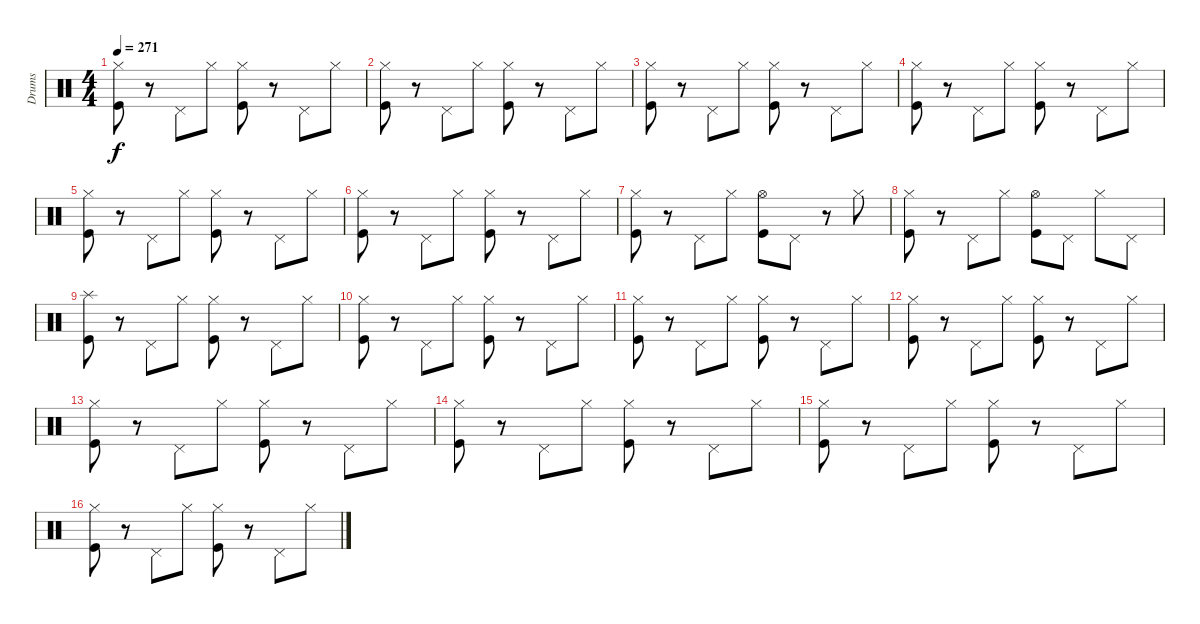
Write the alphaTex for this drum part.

\track ("Drums" "Drums") {instrument percussion}
\staff {score}
\articulation defaults
\ts (4 4)
\tempo 271
\clef neutral
\ks c
("Hi-Hat (closed)" "Kick (hit)").8{dy f} r.8 "Pedal Hi-Hat (hit)".8 "Hi-Hat (closed)".8 ("Hi-Hat (closed)" "Kick (hit)").8 r.8 "Pedal Hi-Hat (hit)".8 "Hi-Hat (closed)".8 |
("Hi-Hat (closed)" "Kick (hit)").8 r.8 "Pedal Hi-Hat (hit)".8 "Hi-Hat (closed)".8 ("Hi-Hat (closed)" "Kick (hit)").8 r.8 "Pedal Hi-Hat (hit)".8 "Hi-Hat (closed)".8 |
("Hi-Hat (closed)" "Kick (hit)").8 r.8 "Pedal Hi-Hat (hit)".8 "Hi-Hat (closed)".8 ("Hi-Hat (closed)" "Kick (hit)").8 r.8 "Pedal Hi-Hat (hit)".8 "Hi-Hat (closed)".8 |
("Hi-Hat (closed)" "Kick (hit)").8 r.8 "Pedal Hi-Hat (hit)".8 "Hi-Hat (closed)".8 ("Hi-Hat (closed)" "Kick (hit)").8 r.8 "Pedal Hi-Hat (hit)".8 "Hi-Hat (closed)".8 |
("Hi-Hat (closed)" "Kick (hit)").8 r.8 "Pedal Hi-Hat (hit)".8 "Hi-Hat (closed)".8 ("Hi-Hat (closed)" "Kick (hit)").8 r.8 "Pedal Hi-Hat (hit)".8 "Hi-Hat (closed)".8 |
("Hi-Hat (closed)" "Kick (hit)").8 r.8 "Pedal Hi-Hat (hit)".8 "Hi-Hat (closed)".8 ("Hi-Hat (closed)" "Kick (hit)").8 r.8 "Pedal Hi-Hat (hit)".8 "Hi-Hat (closed)".8 |
("Hi-Hat (closed)" "Kick (hit)").8 r.8 "Pedal Hi-Hat (hit)".8 "Hi-Hat (closed)".8 ("Hi-Hat (open)" "Kick (hit)").8 "Pedal Hi-Hat (hit)".8 r.8 "Hi-Hat (closed)".8 |
("Hi-Hat (closed)" "Kick (hit)").8 r.8 "Pedal Hi-Hat (hit)".8 "Hi-Hat (closed)".8 ("Hi-Hat (open)" "Kick (hit)").8 "Pedal Hi-Hat (hit)".8 "Hi-Hat (closed)".8 "Pedal Hi-Hat (hit)".8 |
("Splash (hit)" "Kick (hit)").8 r.8 "Pedal Hi-Hat (hit)".8 "Hi-Hat (closed)".8 ("Hi-Hat (closed)" "Kick (hit)").8 r.8 "Pedal Hi-Hat (hit)".8 "Hi-Hat (closed)".8 |
("Hi-Hat (closed)" "Kick (hit)").8 r.8 "Pedal Hi-Hat (hit)".8 "Hi-Hat (closed)".8 ("Hi-Hat (closed)" "Kick (hit)").8 r.8 "Pedal Hi-Hat (hit)".8 "Hi-Hat (closed)".8 |
("Hi-Hat (closed)" "Kick (hit)").8 r.8 "Pedal Hi-Hat (hit)".8 "Hi-Hat (closed)".8 ("Hi-Hat (closed)" "Kick (hit)").8 r.8 "Pedal Hi-Hat (hit)".8 "Hi-Hat (closed)".8 |
("Hi-Hat (closed)" "Kick (hit)").8 r.8 "Pedal Hi-Hat (hit)".8 "Hi-Hat (closed)".8 ("Hi-Hat (closed)" "Kick (hit)").8 r.8 "Pedal Hi-Hat (hit)".8 "Hi-Hat (closed)".8 |
("Hi-Hat (closed)" "Kick (hit)").8 r.8 "Pedal Hi-Hat (hit)".8 "Hi-Hat (closed)".8 ("Hi-Hat (closed)" "Kick (hit)").8 r.8 "Pedal Hi-Hat (hit)".8 "Hi-Hat (closed)".8 |
("Hi-Hat (closed)" "Kick (hit)").8 r.8 "Pedal Hi-Hat (hit)".8 "Hi-Hat (closed)".8 ("Hi-Hat (closed)" "Kick (hit)").8 r.8 "Pedal Hi-Hat (hit)".8 "Hi-Hat (closed)".8 |
("Hi-Hat (closed)" "Kick (hit)").8 r.8 "Pedal Hi-Hat (hit)".8 "Hi-Hat (closed)".8 ("Hi-Hat (closed)" "Kick (hit)").8 r.8 "Pedal Hi-Hat (hit)".8 "Hi-Hat (closed)".8 |
("Hi-Hat (closed)" "Kick (hit)").8 r.8 "Pedal Hi-Hat (hit)".8 "Hi-Hat (closed)".8 ("Hi-Hat (closed)" "Kick (hit)").8 r.8 "Pedal Hi-Hat (hit)".8 "Hi-Hat (closed)".8
